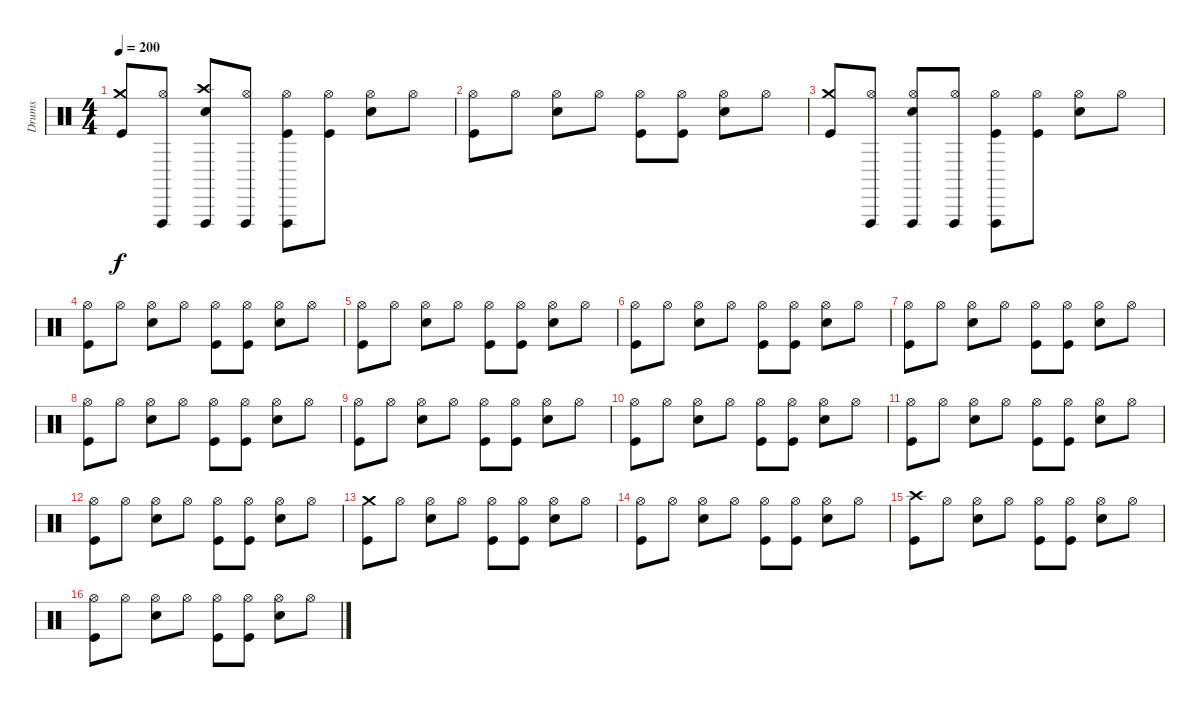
\track ("Drums" "Drums") {instrument percussion}
\staff {score}
\articulation defaults
\ts (4 4)
\tempo 200
\clef neutral
\ks c
("Crash medium (hit)" "Kick (hit)").8{dy f} ("Vibraslap (hit)" "Hi-Hat (open)").8 ("Crash high (hit)" "Vibraslap (hit)" "Snare (hit) 2").8 ("Vibraslap (hit)" "Hi-Hat (open)").8 ("Vibraslap (hit)" "Hi-Hat (open)" "Kick (hit)").8 ("Hi-Hat (open)" "Kick (hit)").8 ("Hi-Hat (open)" "Snare (hit) 2").8 "Hi-Hat (open)".8 |
("Hi-Hat (open)" "Kick (hit)").8 "Hi-Hat (open)".8 ("Hi-Hat (open)" "Snare (hit) 2").8 "Hi-Hat (open)".8 ("Hi-Hat (open)" "Kick (hit)").8 ("Hi-Hat (open)" "Kick (hit)").8 ("Hi-Hat (open)" "Snare (hit) 2").8 "Hi-Hat (open)".8 |
("Crash medium (hit)" "Kick (hit)").8 ("Vibraslap (hit)" "Hi-Hat (open)").8 ("Vibraslap (hit)" "Hi-Hat (open)" "Snare (hit) 2").8 ("Vibraslap (hit)" "Hi-Hat (open)").8 ("Vibraslap (hit)" "Hi-Hat (open)" "Kick (hit)").8 ("Hi-Hat (open)" "Kick (hit)").8 ("Hi-Hat (open)" "Snare (hit) 2").8 "Hi-Hat (open)".8 |
("Hi-Hat (open)" "Kick (hit)").8 "Hi-Hat (open)".8 ("Hi-Hat (open)" "Snare (hit) 2").8 "Hi-Hat (open)".8 ("Hi-Hat (open)" "Kick (hit)").8 ("Hi-Hat (open)" "Kick (hit)").8 ("Hi-Hat (open)" "Snare (hit) 2").8 "Hi-Hat (open)".8 |
("Hi-Hat (open)" "Kick (hit)").8 "Hi-Hat (open)".8 ("Hi-Hat (open)" "Snare (hit) 2").8 "Hi-Hat (open)".8 ("Hi-Hat (open)" "Kick (hit)").8 ("Hi-Hat (open)" "Kick (hit)").8 ("Hi-Hat (open)" "Snare (hit) 2").8 "Hi-Hat (open)".8 |
("Hi-Hat (open)" "Kick (hit)").8 "Hi-Hat (open)".8 ("Hi-Hat (open)" "Snare (hit) 2").8 "Hi-Hat (open)".8 ("Hi-Hat (open)" "Kick (hit)").8 ("Hi-Hat (open)" "Kick (hit)").8 ("Hi-Hat (open)" "Snare (hit) 2").8 "Hi-Hat (open)".8 |
("Hi-Hat (open)" "Kick (hit)").8 "Hi-Hat (open)".8 ("Hi-Hat (open)" "Snare (hit) 2").8 "Hi-Hat (open)".8 ("Hi-Hat (open)" "Kick (hit)").8 ("Hi-Hat (open)" "Kick (hit)").8 ("Hi-Hat (open)" "Snare (hit) 2").8 "Hi-Hat (open)".8 |
("Hi-Hat (open)" "Kick (hit)").8 "Hi-Hat (open)".8 ("Hi-Hat (open)" "Snare (hit) 2").8 "Hi-Hat (open)".8 ("Hi-Hat (open)" "Kick (hit)").8 ("Hi-Hat (open)" "Kick (hit)").8 ("Hi-Hat (open)" "Snare (hit) 2").8 "Hi-Hat (open)".8 |
("Hi-Hat (open)" "Kick (hit)").8 "Hi-Hat (open)".8 ("Hi-Hat (open)" "Snare (hit) 2").8 "Hi-Hat (open)".8 ("Hi-Hat (open)" "Kick (hit)").8 ("Hi-Hat (open)" "Kick (hit)").8 ("Hi-Hat (open)" "Snare (hit) 2").8 "Hi-Hat (open)".8 |
("Hi-Hat (open)" "Kick (hit)").8 "Hi-Hat (open)".8 ("Hi-Hat (open)" "Snare (hit) 2").8 "Hi-Hat (open)".8 ("Hi-Hat (open)" "Kick (hit)").8 ("Hi-Hat (open)" "Kick (hit)").8 ("Hi-Hat (open)" "Snare (hit) 2").8 "Hi-Hat (open)".8 |
("Hi-Hat (open)" "Kick (hit)").8 "Hi-Hat (open)".8 ("Hi-Hat (open)" "Snare (hit) 2").8 "Hi-Hat (open)".8 ("Hi-Hat (open)" "Kick (hit)").8 ("Hi-Hat (open)" "Kick (hit)").8 ("Hi-Hat (open)" "Snare (hit) 2").8 "Hi-Hat (open)".8 |
("Hi-Hat (open)" "Kick (hit)").8 "Hi-Hat (open)".8 ("Hi-Hat (open)" "Snare (hit) 2").8 "Hi-Hat (open)".8 ("Hi-Hat (open)" "Kick (hit)").8 ("Hi-Hat (open)" "Kick (hit)").8 ("Hi-Hat (open)" "Snare (hit) 2").8 "Hi-Hat (open)".8 |
("Crash medium (hit)" "Kick (hit)").8 "Hi-Hat (open)".8 ("Hi-Hat (open)" "Snare (hit) 2").8 "Hi-Hat (open)".8 ("Hi-Hat (open)" "Kick (hit)").8 ("Hi-Hat (open)" "Kick (hit)").8 ("Hi-Hat (open)" "Snare (hit) 2").8 "Hi-Hat (open)".8 |
("Hi-Hat (open)" "Kick (hit)").8 "Hi-Hat (open)".8 ("Hi-Hat (open)" "Snare (hit) 2").8 "Hi-Hat (open)".8 ("Hi-Hat (open)" "Kick (hit)").8 ("Hi-Hat (open)" "Kick (hit)").8 ("Hi-Hat (open)" "Snare (hit) 2").8 "Hi-Hat (open)".8 |
("Crash high (hit)" "Kick (hit)").8 "Hi-Hat (open)".8 ("Hi-Hat (open)" "Snare (hit) 2").8 "Hi-Hat (open)".8 ("Hi-Hat (open)" "Kick (hit)").8 ("Hi-Hat (open)" "Kick (hit)").8 ("Hi-Hat (open)" "Snare (hit) 2").8 "Hi-Hat (open)".8 |
("Hi-Hat (open)" "Kick (hit)").8 "Hi-Hat (open)".8 ("Hi-Hat (open)" "Snare (hit) 2").8 "Hi-Hat (open)".8 ("Hi-Hat (open)" "Kick (hit)").8 ("Hi-Hat (open)" "Kick (hit)").8 ("Hi-Hat (open)" "Snare (hit) 2").8 "Hi-Hat (open)".8
